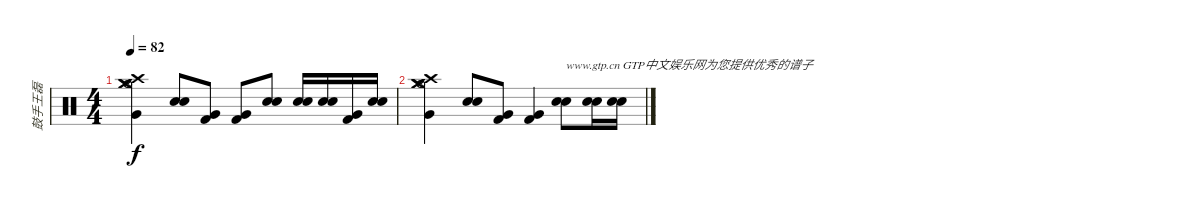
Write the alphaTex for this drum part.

\track ("鼓手王磊" "鼓手王磊") {instrument percussion}
\staff {score}
\articulation defaults
\ts (4 4)
\tempo 82
\clef neutral
\ks c
("Crash medium (hit)" "Crash medium (hit)" "Very Low Tom (hit)" "Crash high (hit)" "Hi-Hat (open)" "Hi-Hat (open)").4{dy f} ("Electric Snare (hit)" "Electric Snare (hit)").8 ("Very Low Tom (hit)" "Kick (hit) 2").8 ("Very Low Tom (hit)" "Kick (hit) 2").8 ("Electric Snare (hit)" "Electric Snare (hit)").8 ("Electric Snare (hit)" "Electric Snare (hit)").16 ("Electric Snare (hit)" "Electric Snare (hit)").16 ("Very Low Tom (hit)" "Kick (hit) 2").16 ("Electric Snare (hit)" "Electric Snare (hit)").16 |
("Crash medium (hit)" "Crash medium (hit)" "Very Low Tom (hit)" "Crash high (hit)" "Hi-Hat (open)" "Hi-Hat (open)").4 ("Electric Snare (hit)" "Electric Snare (hit)").8 ("Very Low Tom (hit)" "Kick (hit) 2").8 ("Very Low Tom (hit)" "Kick (hit) 2").4 ("Electric Snare (hit)" "Electric Snare (hit)").8{txt "www.gtp.cn GTP中文娱乐网为您提供优秀的谱子"} ("Electric Snare (hit)" "Electric Snare (hit)").16 ("Electric Snare (hit)" "Electric Snare (hit)").16
